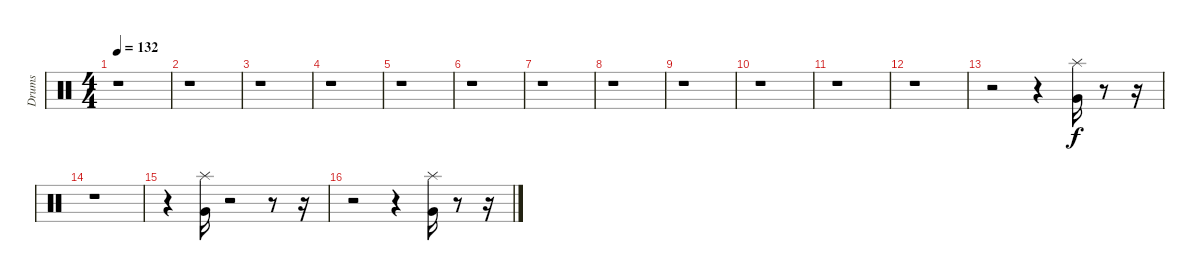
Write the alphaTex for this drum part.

\track ("Drums" "Drums") {instrument percussion}
\staff {score}
\articulation defaults
\ts (4 4)
\tempo 132
\clef neutral
\ks c
r.1{dy f} |
r.1 |
r.1 |
r.1 |
r.1 |
r.1 |
r.1 |
r.1 |
r.1 |
r.1 |
r.1 |
r.1 |
r.2 r.4 ("Very Low Tom (hit)" "Splash (hit)").16 r.8 r.16 |
r.1 |
r.4 ("Very Low Tom (hit)" "Splash (hit)").16 r.2 r.8 r.16 |
r.2 r.4 ("Very Low Tom (hit)" "Splash (hit)").16 r.8 r.16
